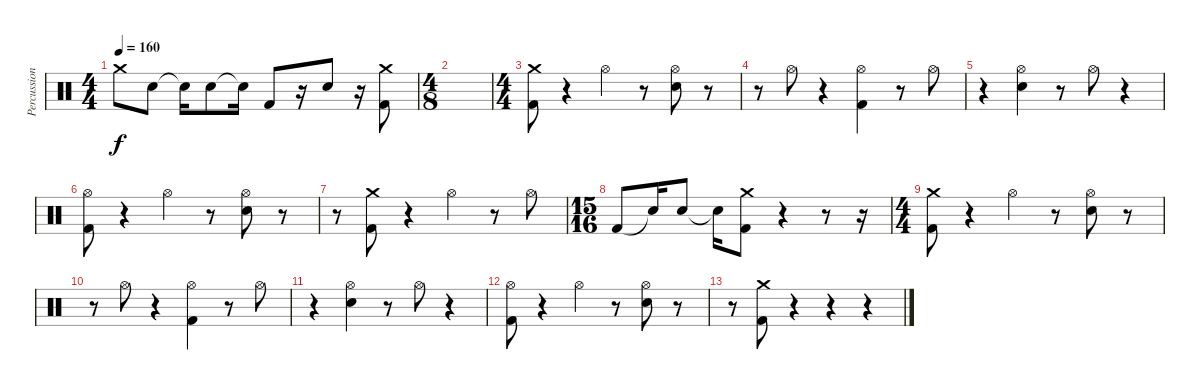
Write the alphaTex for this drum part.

\track ("Percussion" "Percussion") {instrument percussion}
\staff {score}
\articulation defaults
\ts (4 4)
\tempo 160
\clef neutral
\ks c "Crash medium (hit)".8{dy f} "Electric Snare (hit)".8 "Electric Snare (hit)"{t}.16 "Electric Snare (hit)".8 "Snare (hit)"{t}.16 "Kick (hit) 2".8
r.16 "Electric Snare (hit)".8 r.16 ("Crash medium (hit)" "Kick (hit) 2").8 |
\ts (4 8)
|
\ts (4 4)
("Crash medium (hit)" "Kick (hit) 2").8 r.4 "Hi-Hat (open)".4 r.8 ("Hi-Hat (open)" "Electric Snare (hit)").8 r.8 |
r.8 "Hi-Hat (open)".8 r.4 ("Hi-Hat (open)" "Kick (hit) 2").4 r.8 "Hi-Hat (open)".8 |
r.4 ("Hi-Hat (open)" "Electric Snare (hit)").4 r.8 "Hi-Hat (open)".8 r.4 |
("Hi-Hat (open)" "Kick (hit) 2").8 r.4 "Hi-Hat (open)".4 r.8 ("Hi-Hat (open)" "Electric Snare (hit)").8 r.8 |
r.8 ("Crash medium (hit)" "Kick (hit) 2").8 r.4 "Hi-Hat (open)".4 r.8 "Hi-Hat (open)".8 |
\ts (15 16)
"Kick (hit) 2".8 "Snare (hit)"{t}.16 "Electric Snare (hit)".8 "Snare (hit)"{t}.16 ("Crash medium (hit)" "Kick (hit) 2").8 r.4 r.8 r.16 |
\ts (4 4)
("Crash medium (hit)" "Kick (hit) 2").8 r.4 "Hi-Hat (open)".4 r.8 ("Hi-Hat (open)" "Electric Snare (hit)").8 r.8 |
r.8 "Hi-Hat (open)".8 r.4 ("Hi-Hat (open)" "Kick (hit) 2").4 r.8 "Hi-Hat (open)".8 |
r.4 ("Hi-Hat (open)" "Electric Snare (hit)").4 r.8 "Hi-Hat (open)".8 r.4 |
("Hi-Hat (open)" "Kick (hit) 2").8 r.4 "Hi-Hat (open)".4 r.8 ("Hi-Hat (open)" "Electric Snare (hit)").8 r.8 |
r.8 ("Crash medium (hit)" "Kick (hit) 2").8 r.4 r.4 r.4
